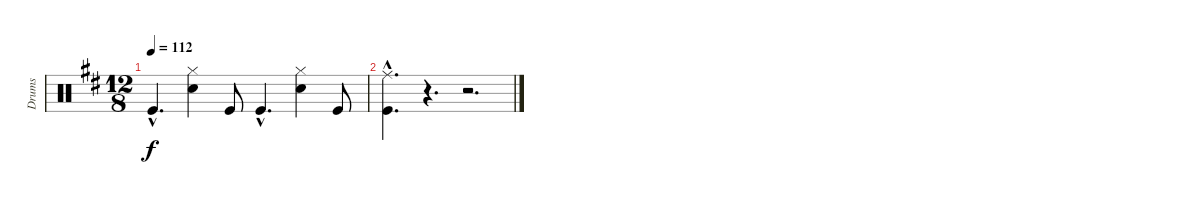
\track ("Drums" "Drums") {instrument percussion}
\staff {score}
\articulation defaults
\ts (12 8)
\tempo 112
\clef neutral
\ks d "Kick (hit)"{hac}.4{d dy f}
("Hi-Hat (closed)" "Electric Snare (hit)").4 "Kick (hit)".8 "Kick (hit)"{hac}.4{d} ("Hi-Hat (closed)" "Electric Snare (hit)").4 "Kick (hit)".8 |
("Ride (middle)"{hac} "Kick (hit)"{hac}).4{d} r.4{d} r.2{d}
